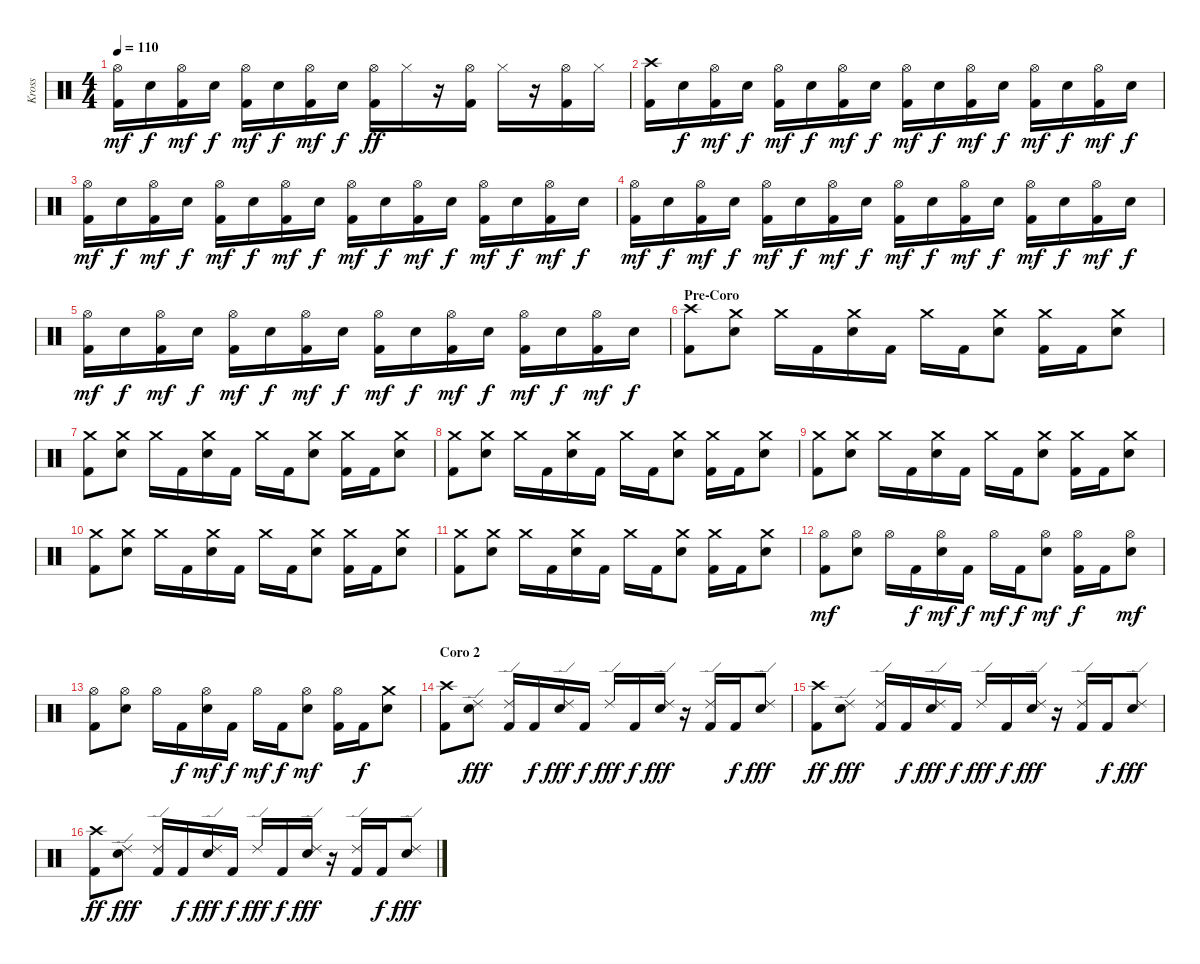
\track ("Kross" "Kross") {instrument percussion}
\staff {score}
\articulation defaults
\ts (4 4)
\tempo 110
\clef neutral
\ks c
("Hi-Hat (open)" "Kick (hit) 2").16{dy mf} "Electric Snare (hit)".16{dy f} ("Hi-Hat (open)" "Kick (hit) 2").16{dy mf} "Electric Snare (hit)".16{dy f} ("Hi-Hat (open)" "Kick (hit) 2").16{dy mf} "Electric Snare (hit)".16{dy f} ("Hi-Hat (open)" "Kick (hit) 2").16{dy mf} "Electric Snare (hit)".16{dy f} ("Hi-Hat (open)" "Kick (hit) 2").16{dy ff} "Hi-Hat (closed)".16 r.16 ("Hi-Hat (open)" "Kick (hit) 2").16 "Hi-Hat (closed)".16 r.16 ("Hi-Hat (open)" "Kick (hit) 2").16 "Hi-Hat (closed)".16 |
("Crash high (hit)" "Kick (hit) 2").16 "Electric Snare (hit)".16{dy f} ("Hi-Hat (open)" "Kick (hit) 2").16{dy mf} "Electric Snare (hit)".16{dy f} ("Hi-Hat (open)" "Kick (hit) 2").16{dy mf} "Electric Snare (hit)".16{dy f} ("Hi-Hat (open)" "Kick (hit) 2").16{dy mf} "Electric Snare (hit)".16{dy f} ("Hi-Hat (open)" "Kick (hit) 2").16{dy mf} "Electric Snare (hit)".16{dy f} ("Hi-Hat (open)" "Kick (hit) 2").16{dy mf} "Electric Snare (hit)".16{dy f} ("Hi-Hat (open)" "Kick (hit) 2").16{dy mf} "Electric Snare (hit)".16{dy f} ("Hi-Hat (open)" "Kick (hit) 2").16{dy mf} "Electric Snare (hit)".16{dy f} |
("Hi-Hat (open)" "Kick (hit) 2").16{dy mf} "Electric Snare (hit)".16{dy f} ("Hi-Hat (open)" "Kick (hit) 2").16{dy mf} "Electric Snare (hit)".16{dy f} ("Hi-Hat (open)" "Kick (hit) 2").16{dy mf} "Electric Snare (hit)".16{dy f} ("Hi-Hat (open)" "Kick (hit) 2").16{dy mf} "Electric Snare (hit)".16{dy f} ("Hi-Hat (open)" "Kick (hit) 2").16{dy mf} "Electric Snare (hit)".16{dy f} ("Hi-Hat (open)" "Kick (hit) 2").16{dy mf} "Electric Snare (hit)".16{dy f} ("Hi-Hat (open)" "Kick (hit) 2").16{dy mf} "Electric Snare (hit)".16{dy f} ("Hi-Hat (open)" "Kick (hit) 2").16{dy mf} "Electric Snare (hit)".16{dy f} |
("Hi-Hat (open)" "Kick (hit) 2").16{dy mf} "Electric Snare (hit)".16{dy f} ("Hi-Hat (open)" "Kick (hit) 2").16{dy mf} "Electric Snare (hit)".16{dy f} ("Hi-Hat (open)" "Kick (hit) 2").16{dy mf} "Electric Snare (hit)".16{dy f} ("Hi-Hat (open)" "Kick (hit) 2").16{dy mf} "Electric Snare (hit)".16{dy f} ("Hi-Hat (open)" "Kick (hit) 2").16{dy mf} "Electric Snare (hit)".16{dy f} ("Hi-Hat (open)" "Kick (hit) 2").16{dy mf} "Electric Snare (hit)".16{dy f} ("Hi-Hat (open)" "Kick (hit) 2").16{dy mf} "Electric Snare (hit)".16{dy f} ("Hi-Hat (open)" "Kick (hit) 2").16{dy mf} "Electric Snare (hit)".16{dy f} |
("Hi-Hat (open)" "Kick (hit) 2").16{dy mf} "Electric Snare (hit)".16{dy f} ("Hi-Hat (open)" "Kick (hit) 2").16{dy mf} "Electric Snare (hit)".16{dy f} ("Hi-Hat (open)" "Kick (hit) 2").16{dy mf} "Electric Snare (hit)".16{dy f} ("Hi-Hat (open)" "Kick (hit) 2").16{dy mf} "Electric Snare (hit)".16{dy f} ("Hi-Hat (open)" "Kick (hit) 2").16{dy mf} "Electric Snare (hit)".16{dy f} ("Hi-Hat (open)" "Kick (hit) 2").16{dy mf} "Electric Snare (hit)".16{dy f} ("Hi-Hat (open)" "Kick (hit) 2").16{dy mf} "Electric Snare (hit)".16{dy f} ("Hi-Hat (open)" "Kick (hit) 2").16{dy mf} "Electric Snare (hit)".16{dy f} |
\section ("" "Pre-Coro")
("Crash high (hit)" "Kick (hit) 2").8 ("Crash medium (hit)" "Electric Snare (hit)").8 "Crash medium (hit)".16 "Kick (hit) 2".16 ("Crash medium (hit)" "Electric Snare (hit)").16 "Kick (hit) 2".16 "Crash medium (hit)".16 "Kick (hit) 2".16 ("Crash medium (hit)" "Electric Snare (hit)").8 ("Crash medium (hit)" "Kick (hit) 2").16 "Kick (hit) 2".16 ("Crash medium (hit)" "Electric Snare (hit)").8 |
("Crash medium (hit)" "Kick (hit) 2").8 ("Crash medium (hit)" "Electric Snare (hit)").8 "Crash medium (hit)".16 "Kick (hit) 2".16 ("Crash medium (hit)" "Electric Snare (hit)").16 "Kick (hit) 2".16 "Crash medium (hit)".16 "Kick (hit) 2".16 ("Crash medium (hit)" "Electric Snare (hit)").8 ("Crash medium (hit)" "Kick (hit) 2").16 "Kick (hit) 2".16 ("Crash medium (hit)" "Electric Snare (hit)").8 |
("Crash medium (hit)" "Kick (hit) 2").8 ("Crash medium (hit)" "Electric Snare (hit)").8 "Crash medium (hit)".16 "Kick (hit) 2".16 ("Crash medium (hit)" "Electric Snare (hit)").16 "Kick (hit) 2".16 "Crash medium (hit)".16 "Kick (hit) 2".16 ("Crash medium (hit)" "Electric Snare (hit)").8 ("Crash medium (hit)" "Kick (hit) 2").16 "Kick (hit) 2".16 ("Crash medium (hit)" "Electric Snare (hit)").8 |
("Crash medium (hit)" "Kick (hit) 2").8 ("Crash medium (hit)" "Electric Snare (hit)").8 "Crash medium (hit)".16 "Kick (hit) 2".16 ("Crash medium (hit)" "Electric Snare (hit)").16 "Kick (hit) 2".16 "Crash medium (hit)".16 "Kick (hit) 2".16 ("Crash medium (hit)" "Electric Snare (hit)").8 ("Crash medium (hit)" "Kick (hit) 2").16 "Kick (hit) 2".16 ("Crash medium (hit)" "Electric Snare (hit)").8 |
("Crash medium (hit)" "Kick (hit) 2").8 ("Crash medium (hit)" "Electric Snare (hit)").8 "Crash medium (hit)".16 "Kick (hit) 2".16 ("Crash medium (hit)" "Electric Snare (hit)").16 "Kick (hit) 2".16 "Crash medium (hit)".16 "Kick (hit) 2".16 ("Crash medium (hit)" "Electric Snare (hit)").8 ("Crash medium (hit)" "Kick (hit) 2").16 "Kick (hit) 2".16 ("Crash medium (hit)" "Electric Snare (hit)").8 |
("Crash medium (hit)" "Kick (hit) 2").8 ("Crash medium (hit)" "Electric Snare (hit)").8 "Crash medium (hit)".16 "Kick (hit) 2".16 ("Crash medium (hit)" "Electric Snare (hit)").16 "Kick (hit) 2".16 "Crash medium (hit)".16 "Kick (hit) 2".16 ("Crash medium (hit)" "Electric Snare (hit)").8 ("Crash medium (hit)" "Kick (hit) 2").16 "Kick (hit) 2".16 ("Crash medium (hit)" "Electric Snare (hit)").8 |
("Hi-Hat (open)" "Kick (hit) 2").8{dy mf} ("Hi-Hat (open)" "Electric Snare (hit)").8 "Hi-Hat (open)".16 "Kick (hit) 2".16{dy f} ("Hi-Hat (open)" "Electric Snare (hit)").16{dy mf} "Kick (hit) 2".16{dy f} "Hi-Hat (open)".16{dy mf} "Kick (hit) 2".16{dy f} ("Hi-Hat (open)" "Electric Snare (hit)").8{dy mf} ("Hi-Hat (open)" "Kick (hit) 2").16{dy f} "Kick (hit) 2".16 ("Hi-Hat (open)" "Electric Snare (hit)").8{dy mf} |
("Hi-Hat (open)" "Kick (hit) 2").8 ("Hi-Hat (open)" "Electric Snare (hit)").8 "Hi-Hat (open)".16 "Kick (hit) 2".16{dy f} ("Hi-Hat (open)" "Electric Snare (hit)").16{dy mf} "Kick (hit) 2".16{dy f} "Hi-Hat (open)".16{dy mf} "Kick (hit) 2".16{dy f} ("Hi-Hat (open)" "Electric Snare (hit)").8{dy mf} ("Hi-Hat (open)" "Kick (hit) 2").16 "Kick (hit) 2".16{dy f} ("Crash medium (hit)" "Electric Snare (hit)").8 |
\section ("" "Coro 2")
("Crash high (hit)" "Kick (hit) 2").8 ("Ride (edge) 2" "Electric Snare (hit)").8{dy fff} ("Ride (edge) 2" "Kick (hit) 2").16 "Kick (hit) 2".16{dy f} ("Ride (edge) 2" "Electric Snare (hit)").16{dy fff} "Kick (hit) 2".16{dy f} "Ride (edge) 2".16{dy fff} "Kick (hit) 2".16{dy f} ("Ride (edge) 2" "Electric Snare (hit)").16{dy fff} r.16 ("Ride (edge) 2" "Kick (hit) 2").16 "Kick (hit) 2".16{dy f} ("Ride (edge) 2" "Electric Snare (hit)").8{dy fff} |
("Crash high (hit)" "Kick (hit) 2").8{dy ff} ("Ride (edge) 2" "Electric Snare (hit)").8{dy fff} ("Ride (edge) 2" "Kick (hit) 2").16 "Kick (hit) 2".16{dy f} ("Ride (edge) 2" "Electric Snare (hit)").16{dy fff} "Kick (hit) 2".16{dy f} "Ride (edge) 2".16{dy fff} "Kick (hit) 2".16{dy f} ("Ride (edge) 2" "Electric Snare (hit)").16{dy fff} r.16 ("Ride (edge) 2" "Kick (hit) 2").16 "Kick (hit) 2".16{dy f} ("Ride (edge) 2" "Electric Snare (hit)").8{dy fff} |
("Crash high (hit)" "Kick (hit) 2").8{dy ff} ("Ride (edge) 2" "Electric Snare (hit)").8{dy fff} ("Ride (edge) 2" "Kick (hit) 2").16 "Kick (hit) 2".16{dy f} ("Ride (edge) 2" "Electric Snare (hit)").16{dy fff} "Kick (hit) 2".16{dy f} "Ride (edge) 2".16{dy fff} "Kick (hit) 2".16{dy f} ("Ride (edge) 2" "Electric Snare (hit)").16{dy fff} r.16 ("Ride (edge) 2" "Kick (hit) 2").16 "Kick (hit) 2".16{dy f} ("Ride (edge) 2" "Electric Snare (hit)").8{dy fff}
